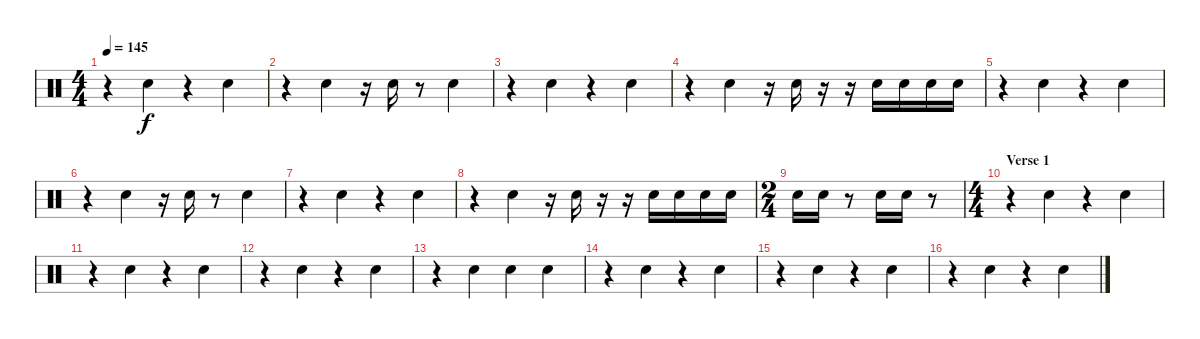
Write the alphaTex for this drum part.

\track "" {instrument percussion}
\staff {score}
\articulation defaults
\ts (4 4)
\tempo 145
\clef neutral
\ks c
r.4{dy f} "Electric Snare (hit)".4 r.4 "Electric Snare (hit)".4 |
r.4 "Electric Snare (hit)".4 r.16 "Electric Snare (hit)".16 r.8 "Electric Snare (hit)".4 |
r.4 "Electric Snare (hit)".4 r.4 "Electric Snare (hit)".4 |
r.4 "Electric Snare (hit)".4 r.16 "Electric Snare (hit)".16 r.16 r.16 "Electric Snare (hit)".16 "Electric Snare (hit)".16 "Electric Snare (hit)".16 "Electric Snare (hit)".16 |
r.4 "Electric Snare (hit)".4 r.4 "Electric Snare (hit)".4 |
r.4 "Electric Snare (hit)".4 r.16 "Electric Snare (hit)".16 r.8 "Electric Snare (hit)".4 |
r.4 "Electric Snare (hit)".4 r.4 "Electric Snare (hit)".4 |
r.4 "Electric Snare (hit)".4 r.16 "Electric Snare (hit)".16 r.16 r.16 "Electric Snare (hit)".16 "Electric Snare (hit)".16 "Electric Snare (hit)".16 "Electric Snare (hit)".16 |
\ts (2 4)
"Electric Snare (hit)".16 "Electric Snare (hit)".16 r.8 "Electric Snare (hit)".16 "Electric Snare (hit)".16 r.8 |
\ts (4 4)
\section ("" "Verse 1")
r.4 "Electric Snare (hit)".4 r.4 "Electric Snare (hit)".4 |
r.4 "Electric Snare (hit)".4 r.4 "Electric Snare (hit)".4 |
r.4 "Electric Snare (hit)".4 r.4 "Electric Snare (hit)".4 |
r.4 "Electric Snare (hit)".4 "Electric Snare (hit)".4 "Electric Snare (hit)".4 |
r.4 "Electric Snare (hit)".4 r.4 "Electric Snare (hit)".4 |
r.4 "Electric Snare (hit)".4 r.4 "Electric Snare (hit)".4 |
r.4 "Electric Snare (hit)".4 r.4 "Electric Snare (hit)".4
